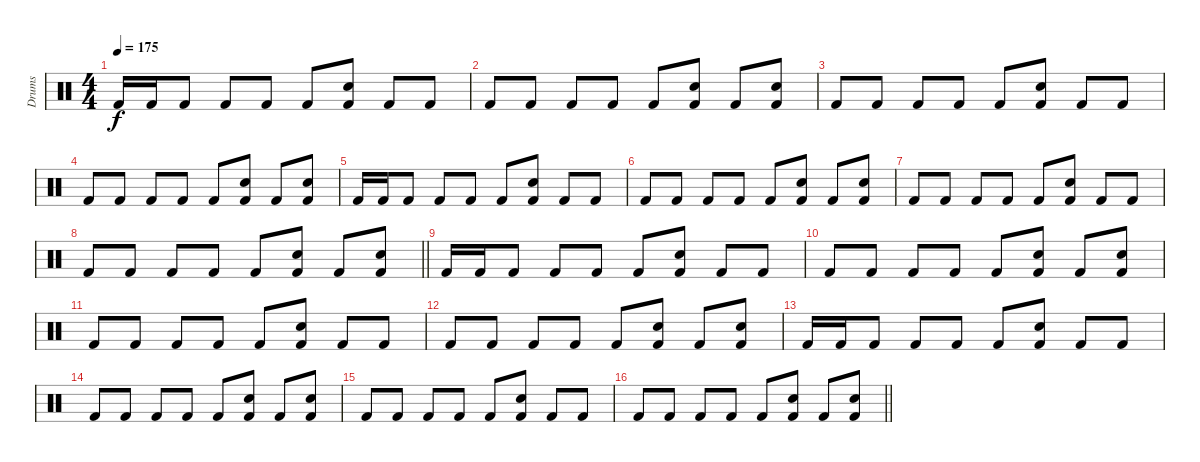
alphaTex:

\track ("Drums" "Drums") {instrument percussion}
\staff {score}
\articulation defaults
\ts (4 4)
\tempo 175
\clef neutral
\ks c "Kick (hit) 2".16{dy f} "Kick (hit) 2".16 "Kick (hit) 2".8 "Kick (hit) 2".8 "Kick (hit) 2".8 "Kick (hit) 2".8
("Snare (hit) 2" "Kick (hit) 2").8 "Kick (hit) 2".8 "Kick (hit) 2".8 |
"Kick (hit) 2".8 "Kick (hit) 2".8 "Kick (hit) 2".8 "Kick (hit) 2".8 "Kick (hit) 2".8 ("Snare (hit) 2" "Kick (hit) 2").8 "Kick (hit) 2".8 ("Snare (hit) 2" "Kick (hit) 2").8 |
"Kick (hit) 2".8 "Kick (hit) 2".8 "Kick (hit) 2".8 "Kick (hit) 2".8 "Kick (hit) 2".8 ("Snare (hit) 2" "Kick (hit) 2").8 "Kick (hit) 2".8 "Kick (hit) 2".8 |
"Kick (hit) 2".8 "Kick (hit) 2".8 "Kick (hit) 2".8 "Kick (hit) 2".8 "Kick (hit) 2".8 ("Snare (hit) 2" "Kick (hit) 2").8 "Kick (hit) 2".8 ("Snare (hit) 2" "Kick (hit) 2").8 |
"Kick (hit) 2".16 "Kick (hit) 2".16 "Kick (hit) 2".8 "Kick (hit) 2".8 "Kick (hit) 2".8 "Kick (hit) 2".8 ("Snare (hit) 2" "Kick (hit) 2").8 "Kick (hit) 2".8 "Kick (hit) 2".8 |
"Kick (hit) 2".8 "Kick (hit) 2".8 "Kick (hit) 2".8 "Kick (hit) 2".8 "Kick (hit) 2".8 ("Snare (hit) 2" "Kick (hit) 2").8 "Kick (hit) 2".8 ("Snare (hit) 2" "Kick (hit) 2").8 |
"Kick (hit) 2".8 "Kick (hit) 2".8 "Kick (hit) 2".8 "Kick (hit) 2".8 "Kick (hit) 2".8 ("Snare (hit) 2" "Kick (hit) 2").8 "Kick (hit) 2".8 "Kick (hit) 2".8 |
\barLineRight lightlight "Kick (hit) 2".8 "Kick (hit) 2".8 "Kick (hit) 2".8 "Kick (hit) 2".8 "Kick (hit) 2".8
("Snare (hit) 2" "Kick (hit) 2").8 "Kick (hit) 2".8 ("Snare (hit) 2" "Kick (hit) 2").8 |
"Kick (hit) 2".16 "Kick (hit) 2".16 "Kick (hit) 2".8 "Kick (hit) 2".8 "Kick (hit) 2".8 "Kick (hit) 2".8 ("Snare (hit) 2" "Kick (hit) 2").8 "Kick (hit) 2".8 "Kick (hit) 2".8 |
"Kick (hit) 2".8 "Kick (hit) 2".8 "Kick (hit) 2".8 "Kick (hit) 2".8 "Kick (hit) 2".8 ("Snare (hit) 2" "Kick (hit) 2").8 "Kick (hit) 2".8 ("Snare (hit) 2" "Kick (hit) 2").8 |
"Kick (hit) 2".8 "Kick (hit) 2".8 "Kick (hit) 2".8 "Kick (hit) 2".8 "Kick (hit) 2".8 ("Snare (hit) 2" "Kick (hit) 2").8 "Kick (hit) 2".8 "Kick (hit) 2".8 |
"Kick (hit) 2".8 "Kick (hit) 2".8 "Kick (hit) 2".8 "Kick (hit) 2".8 "Kick (hit) 2".8 ("Snare (hit) 2" "Kick (hit) 2").8 "Kick (hit) 2".8 ("Snare (hit) 2" "Kick (hit) 2").8 |
"Kick (hit) 2".16 "Kick (hit) 2".16 "Kick (hit) 2".8 "Kick (hit) 2".8 "Kick (hit) 2".8 "Kick (hit) 2".8 ("Snare (hit) 2" "Kick (hit) 2").8 "Kick (hit) 2".8 "Kick (hit) 2".8 |
"Kick (hit) 2".8 "Kick (hit) 2".8 "Kick (hit) 2".8 "Kick (hit) 2".8 "Kick (hit) 2".8 ("Snare (hit) 2" "Kick (hit) 2").8 "Kick (hit) 2".8 ("Snare (hit) 2" "Kick (hit) 2").8 |
"Kick (hit) 2".8 "Kick (hit) 2".8 "Kick (hit) 2".8 "Kick (hit) 2".8 "Kick (hit) 2".8 ("Snare (hit) 2" "Kick (hit) 2").8 "Kick (hit) 2".8 "Kick (hit) 2".8 |
\barLineRight lightlight "Kick (hit) 2".8 "Kick (hit) 2".8 "Kick (hit) 2".8 "Kick (hit) 2".8 "Kick (hit) 2".8
("Snare (hit) 2" "Kick (hit) 2").8 "Kick (hit) 2".8 ("Snare (hit) 2" "Kick (hit) 2").8
